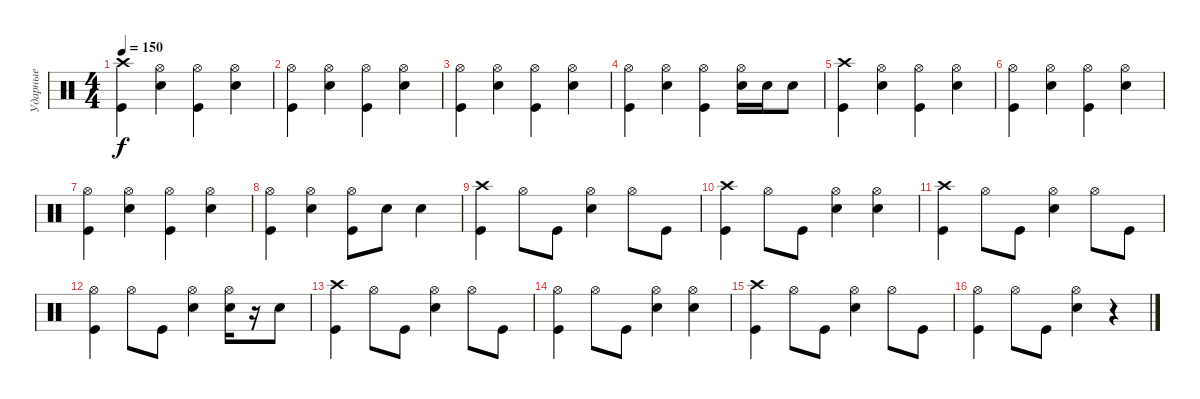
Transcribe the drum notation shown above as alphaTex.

\track ("Ударные" "Ударные") {instrument percussion}
\staff {score}
\articulation defaults
\ts (4 4)
\tempo 150
\clef neutral
\ks c
("Crash high (hit)" "Kick (hit)").4{dy f} ("Hi-Hat (open)" "Snare (hit) 2").4 ("Hi-Hat (open)" "Kick (hit)").4 ("Hi-Hat (open)" "Snare (hit) 2").4 |
("Hi-Hat (open)" "Kick (hit)").4 ("Hi-Hat (open)" "Snare (hit) 2").4 ("Hi-Hat (open)" "Kick (hit)").4 ("Hi-Hat (open)" "Snare (hit) 2").4 |
("Hi-Hat (open)" "Kick (hit)").4 ("Hi-Hat (open)" "Snare (hit) 2").4 ("Hi-Hat (open)" "Kick (hit)").4 ("Hi-Hat (open)" "Snare (hit) 2").4 |
("Hi-Hat (open)" "Kick (hit)").4 ("Hi-Hat (open)" "Snare (hit) 2").4 ("Hi-Hat (open)" "Kick (hit)").4 ("Hi-Hat (open)" "Snare (hit) 2").16 "Snare (hit) 2".16 "Snare (hit) 2".8 |
("Crash high (hit)" "Kick (hit)").4 ("Hi-Hat (open)" "Snare (hit) 2").4 ("Hi-Hat (open)" "Kick (hit)").4 ("Hi-Hat (open)" "Snare (hit) 2").4 |
("Hi-Hat (open)" "Kick (hit)").4 ("Hi-Hat (open)" "Snare (hit) 2").4 ("Hi-Hat (open)" "Kick (hit)").4 ("Hi-Hat (open)" "Snare (hit) 2").4 |
("Hi-Hat (open)" "Kick (hit)").4 ("Hi-Hat (open)" "Snare (hit) 2").4 ("Hi-Hat (open)" "Kick (hit)").4 ("Hi-Hat (open)" "Snare (hit) 2").4 |
("Hi-Hat (open)" "Kick (hit)").4 ("Hi-Hat (open)" "Snare (hit) 2").4 ("Hi-Hat (open)" "Kick (hit)").8 "Snare (hit) 2".8 "Snare (hit) 2".4 |
("Crash high (hit)" "Kick (hit)").4 "Hi-Hat (open)".8 "Kick (hit)".8 ("Hi-Hat (open)" "Snare (hit) 2").4 "Hi-Hat (open)".8 "Kick (hit)".8 |
("Crash high (hit)" "Kick (hit)").4 "Hi-Hat (open)".8 "Kick (hit)".8 ("Hi-Hat (open)" "Snare (hit) 2").4 ("Hi-Hat (open)" "Snare (hit) 2").4 |
("Crash high (hit)" "Kick (hit)").4 "Hi-Hat (open)".8 "Kick (hit)".8 ("Hi-Hat (open)" "Snare (hit) 2").4 "Hi-Hat (open)".8 "Kick (hit)".8 |
("Hi-Hat (open)" "Kick (hit)").4 "Hi-Hat (open)".8 "Kick (hit)".8 ("Hi-Hat (open)" "Snare (hit) 2").4 ("Hi-Hat (open)" "Snare (hit) 2").16 r.16 "Snare (hit) 2".8 |
("Crash high (hit)" "Kick (hit)").4 "Hi-Hat (open)".8 "Kick (hit)".8 ("Hi-Hat (open)" "Snare (hit) 2").4 "Hi-Hat (open)".8 "Kick (hit)".8 |
("Hi-Hat (open)" "Kick (hit)").4 "Hi-Hat (open)".8 "Kick (hit)".8 ("Hi-Hat (open)" "Snare (hit) 2").4 ("Hi-Hat (open)" "Snare (hit) 2").4 |
("Crash high (hit)" "Kick (hit)").4 "Hi-Hat (open)".8 "Kick (hit)".8 ("Hi-Hat (open)" "Snare (hit) 2").4 "Hi-Hat (open)".8 "Kick (hit)".8 |
("Hi-Hat (open)" "Kick (hit)").4 "Hi-Hat (open)".8 "Kick (hit)".8 ("Hi-Hat (open)" "Snare (hit) 2").4 r.4
